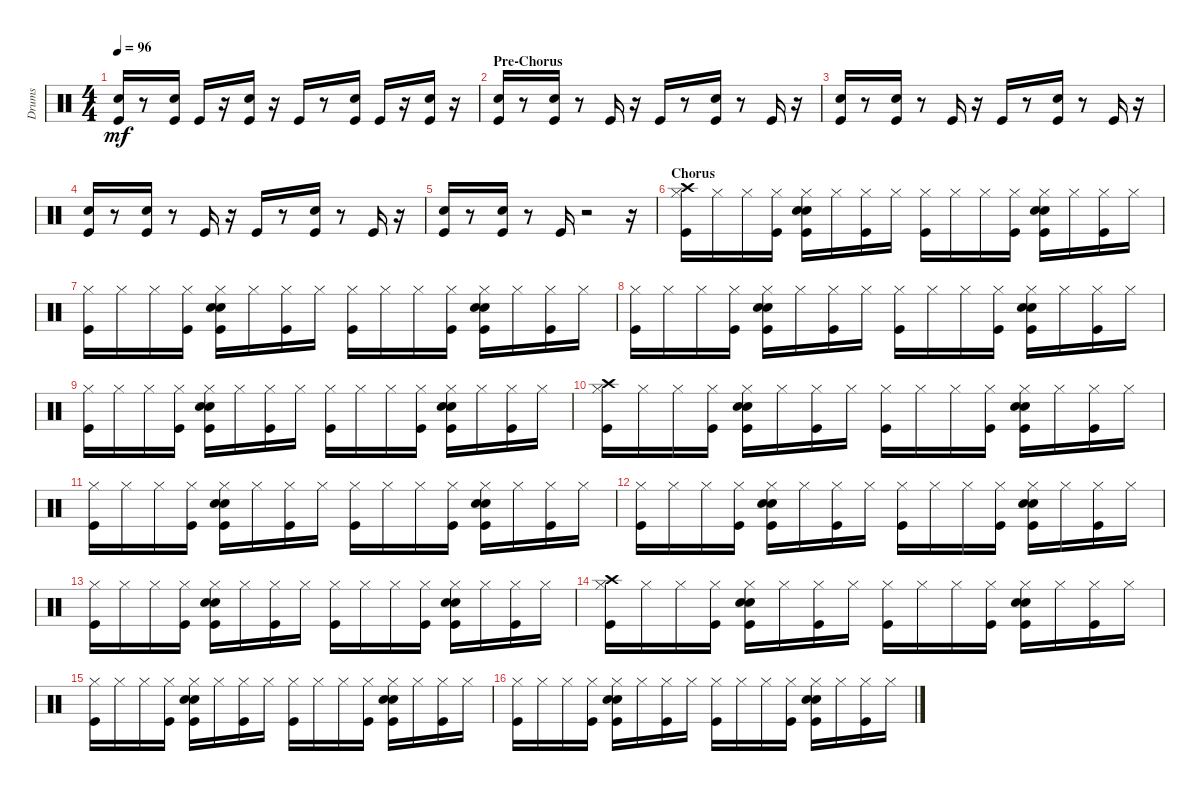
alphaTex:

\track ("Drums" "Drums") {instrument percussion}
\staff {score}
\articulation defaults
\ts (4 4)
\tempo 96
\clef neutral
\ks aminor
("Kick (hit)" "Hand Clap (hit)").16{dy mf} r.8 ("Kick (hit)" "Hand Clap (hit)").16 "Kick (hit)".16 r.16 ("Kick (hit)" "Electric Snare (hit)").16 r.16 "Kick (hit)".16 r.8 ("Kick (hit)" "Hand Clap (hit)").16 "Kick (hit)".16 r.16 ("Kick (hit)" "Electric Snare (hit)").16 r.16 |
\section ("" "Pre-Chorus")
("Kick (hit)" "Hand Clap (hit)").16 r.8 ("Kick (hit)" "Hand Clap (hit)").16 r.8 "Kick (hit)".16 r.16 "Kick (hit)".16 r.8 ("Kick (hit)" "Hand Clap (hit)").16 r.8 "Kick (hit)".16 r.16 |
("Kick (hit)" "Hand Clap (hit)").16 r.8 ("Kick (hit)" "Hand Clap (hit)").16 r.8 "Kick (hit)".16 r.16 "Kick (hit)".16 r.8 ("Kick (hit)" "Hand Clap (hit)").16 r.8 "Kick (hit)".16 r.16 |
("Kick (hit)" "Hand Clap (hit)").16 r.8 ("Kick (hit)" "Hand Clap (hit)").16 r.8 "Kick (hit)".16 r.16 "Kick (hit)".16 r.8 ("Kick (hit)" "Hand Clap (hit)").16 r.8 "Kick (hit)".16 r.16 |
("Kick (hit)" "Hand Clap (hit)").16 r.8 ("Kick (hit)" "Hand Clap (hit)").16 r.8 "Kick (hit)".16 r.2 r.16 |
\section ("" "Chorus")
("Kick (hit)" "Hi-Hat (closed)" "Crash high (hit)").16 "Hi-Hat (closed)".16 "Hi-Hat (closed)".16 ("Kick (hit)" "Hi-Hat (closed)").16 ("Kick (hit)" "Hand Clap (hit)" "Electric Snare (hit)" "Hi-Hat (closed)").16 "Hi-Hat (closed)".16 ("Kick (hit)" "Hi-Hat (closed)").16 "Hi-Hat (closed)".16 ("Kick (hit)" "Hi-Hat (closed)").16 "Hi-Hat (closed)".16 "Hi-Hat (closed)".16 ("Kick (hit)" "Hi-Hat (closed)").16 ("Kick (hit)" "Hand Clap (hit)" "Electric Snare (hit)" "Hi-Hat (closed)").16 "Hi-Hat (closed)".16 ("Kick (hit)" "Hi-Hat (closed)").16 "Hi-Hat (closed)".16 |
("Kick (hit)" "Hi-Hat (closed)").16 "Hi-Hat (closed)".16 "Hi-Hat (closed)".16 ("Kick (hit)" "Hi-Hat (closed)").16 ("Kick (hit)" "Hand Clap (hit)" "Electric Snare (hit)" "Hi-Hat (closed)").16 "Hi-Hat (closed)".16 ("Kick (hit)" "Hi-Hat (closed)").16 "Hi-Hat (closed)".16 ("Kick (hit)" "Hi-Hat (closed)").16 "Hi-Hat (closed)".16 "Hi-Hat (closed)".16 ("Kick (hit)" "Hi-Hat (closed)").16 ("Kick (hit)" "Hand Clap (hit)" "Electric Snare (hit)" "Hi-Hat (closed)").16 "Hi-Hat (closed)".16 ("Kick (hit)" "Hi-Hat (closed)").16 "Hi-Hat (closed)".16 |
("Kick (hit)" "Hi-Hat (closed)").16 "Hi-Hat (closed)".16 "Hi-Hat (closed)".16 ("Kick (hit)" "Hi-Hat (closed)").16 ("Kick (hit)" "Hand Clap (hit)" "Electric Snare (hit)" "Hi-Hat (closed)").16 "Hi-Hat (closed)".16 ("Kick (hit)" "Hi-Hat (closed)").16 "Hi-Hat (closed)".16 ("Kick (hit)" "Hi-Hat (closed)").16 "Hi-Hat (closed)".16 "Hi-Hat (closed)".16 ("Kick (hit)" "Hi-Hat (closed)").16 ("Kick (hit)" "Hand Clap (hit)" "Electric Snare (hit)" "Hi-Hat (closed)").16 "Hi-Hat (closed)".16 ("Kick (hit)" "Hi-Hat (closed)").16 "Hi-Hat (closed)".16 |
("Kick (hit)" "Hi-Hat (closed)").16 "Hi-Hat (closed)".16 "Hi-Hat (closed)".16 ("Kick (hit)" "Hi-Hat (closed)").16 ("Kick (hit)" "Hand Clap (hit)" "Electric Snare (hit)" "Hi-Hat (closed)").16 "Hi-Hat (closed)".16 ("Kick (hit)" "Hi-Hat (closed)").16 "Hi-Hat (closed)".16 ("Kick (hit)" "Hi-Hat (closed)").16 "Hi-Hat (closed)".16 "Hi-Hat (closed)".16 ("Kick (hit)" "Hi-Hat (closed)").16 ("Kick (hit)" "Hand Clap (hit)" "Electric Snare (hit)" "Hi-Hat (closed)").16 "Hi-Hat (closed)".16 ("Kick (hit)" "Hi-Hat (closed)").16 "Hi-Hat (closed)".16 |
("Kick (hit)" "Hi-Hat (closed)" "Crash high (hit)").16 "Hi-Hat (closed)".16 "Hi-Hat (closed)".16 ("Kick (hit)" "Hi-Hat (closed)").16 ("Kick (hit)" "Hand Clap (hit)" "Electric Snare (hit)" "Hi-Hat (closed)").16 "Hi-Hat (closed)".16 ("Kick (hit)" "Hi-Hat (closed)").16 "Hi-Hat (closed)".16 ("Kick (hit)" "Hi-Hat (closed)").16 "Hi-Hat (closed)".16 "Hi-Hat (closed)".16 ("Kick (hit)" "Hi-Hat (closed)").16 ("Kick (hit)" "Hand Clap (hit)" "Electric Snare (hit)" "Hi-Hat (closed)").16 "Hi-Hat (closed)".16 ("Kick (hit)" "Hi-Hat (closed)").16 "Hi-Hat (closed)".16 |
("Kick (hit)" "Hi-Hat (closed)").16 "Hi-Hat (closed)".16 "Hi-Hat (closed)".16 ("Kick (hit)" "Hi-Hat (closed)").16 ("Kick (hit)" "Hand Clap (hit)" "Electric Snare (hit)" "Hi-Hat (closed)").16 "Hi-Hat (closed)".16 ("Kick (hit)" "Hi-Hat (closed)").16 "Hi-Hat (closed)".16 ("Kick (hit)" "Hi-Hat (closed)").16 "Hi-Hat (closed)".16 "Hi-Hat (closed)".16 ("Kick (hit)" "Hi-Hat (closed)").16 ("Kick (hit)" "Hand Clap (hit)" "Electric Snare (hit)" "Hi-Hat (closed)").16 "Hi-Hat (closed)".16 ("Kick (hit)" "Hi-Hat (closed)").16 "Hi-Hat (closed)".16 |
("Kick (hit)" "Hi-Hat (closed)").16 "Hi-Hat (closed)".16 "Hi-Hat (closed)".16 ("Kick (hit)" "Hi-Hat (closed)").16 ("Kick (hit)" "Hand Clap (hit)" "Electric Snare (hit)" "Hi-Hat (closed)").16 "Hi-Hat (closed)".16 ("Kick (hit)" "Hi-Hat (closed)").16 "Hi-Hat (closed)".16 ("Kick (hit)" "Hi-Hat (closed)").16 "Hi-Hat (closed)".16 "Hi-Hat (closed)".16 ("Kick (hit)" "Hi-Hat (closed)").16 ("Kick (hit)" "Hand Clap (hit)" "Electric Snare (hit)" "Hi-Hat (closed)").16 "Hi-Hat (closed)".16 ("Kick (hit)" "Hi-Hat (closed)").16 "Hi-Hat (closed)".16 |
("Kick (hit)" "Hi-Hat (closed)").16 "Hi-Hat (closed)".16 "Hi-Hat (closed)".16 ("Kick (hit)" "Hi-Hat (closed)").16 ("Kick (hit)" "Hand Clap (hit)" "Electric Snare (hit)" "Hi-Hat (closed)").16 "Hi-Hat (closed)".16 ("Kick (hit)" "Hi-Hat (closed)").16 "Hi-Hat (closed)".16 ("Kick (hit)" "Hi-Hat (closed)").16 "Hi-Hat (closed)".16 "Hi-Hat (closed)".16 ("Kick (hit)" "Hi-Hat (closed)").16 ("Kick (hit)" "Hand Clap (hit)" "Electric Snare (hit)" "Hi-Hat (closed)").16 "Hi-Hat (closed)".16 ("Kick (hit)" "Hi-Hat (closed)").16 "Hi-Hat (closed)".16 |
("Kick (hit)" "Hi-Hat (closed)" "Crash high (hit)").16 "Hi-Hat (closed)".16 "Hi-Hat (closed)".16 ("Kick (hit)" "Hi-Hat (closed)").16 ("Kick (hit)" "Hand Clap (hit)" "Electric Snare (hit)" "Hi-Hat (closed)").16 "Hi-Hat (closed)".16 ("Kick (hit)" "Hi-Hat (closed)").16 "Hi-Hat (closed)".16 ("Kick (hit)" "Hi-Hat (closed)").16 "Hi-Hat (closed)".16 "Hi-Hat (closed)".16 ("Kick (hit)" "Hi-Hat (closed)").16 ("Kick (hit)" "Hand Clap (hit)" "Electric Snare (hit)" "Hi-Hat (closed)").16 "Hi-Hat (closed)".16 ("Kick (hit)" "Hi-Hat (closed)").16 "Hi-Hat (closed)".16 |
("Kick (hit)" "Hi-Hat (closed)").16 "Hi-Hat (closed)".16 "Hi-Hat (closed)".16 ("Kick (hit)" "Hi-Hat (closed)").16 ("Kick (hit)" "Hand Clap (hit)" "Electric Snare (hit)" "Hi-Hat (closed)").16 "Hi-Hat (closed)".16 ("Kick (hit)" "Hi-Hat (closed)").16 "Hi-Hat (closed)".16 ("Kick (hit)" "Hi-Hat (closed)").16 "Hi-Hat (closed)".16 "Hi-Hat (closed)".16 ("Kick (hit)" "Hi-Hat (closed)").16 ("Kick (hit)" "Hand Clap (hit)" "Electric Snare (hit)" "Hi-Hat (closed)").16 "Hi-Hat (closed)".16 ("Kick (hit)" "Hi-Hat (closed)").16 "Hi-Hat (closed)".16 |
("Kick (hit)" "Hi-Hat (closed)").16 "Hi-Hat (closed)".16 "Hi-Hat (closed)".16 ("Kick (hit)" "Hi-Hat (closed)").16 ("Kick (hit)" "Hand Clap (hit)" "Electric Snare (hit)" "Hi-Hat (closed)").16 "Hi-Hat (closed)".16 ("Kick (hit)" "Hi-Hat (closed)").16 "Hi-Hat (closed)".16 ("Kick (hit)" "Hi-Hat (closed)").16 "Hi-Hat (closed)".16 "Hi-Hat (closed)".16 ("Kick (hit)" "Hi-Hat (closed)").16 ("Kick (hit)" "Hand Clap (hit)" "Electric Snare (hit)" "Hi-Hat (closed)").16 "Hi-Hat (closed)".16 ("Kick (hit)" "Hi-Hat (closed)").16 "Hi-Hat (closed)".16
